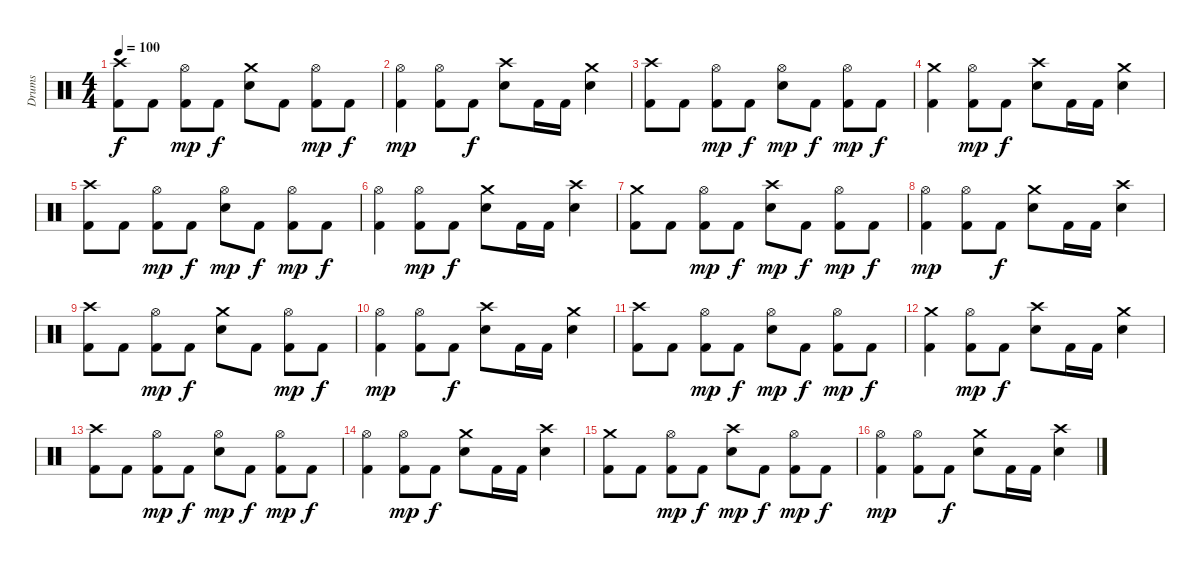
\track ("Drums" "Drums") {instrument percussion}
\staff {score}
\articulation defaults
\ts (4 4)
\tempo 100
\clef neutral
\ks c
("Crash high (hit)" "Kick (hit) 2").8{dy f} "Kick (hit) 2".8 ("Hi-Hat (open)" "Kick (hit) 2").8{dy mp} "Kick (hit) 2".8{dy f} ("Crash medium (hit)" "Snare (hit) 2").8 "Kick (hit) 2".8 ("Hi-Hat (open)" "Kick (hit) 2").8{dy mp} "Kick (hit) 2".8{dy f} |
("Hi-Hat (open)" "Kick (hit) 2").4{dy mp} ("Hi-Hat (open)" "Kick (hit) 2").8 "Kick (hit) 2".8{dy f} ("Crash high (hit)" "Snare (hit) 2").8 "Kick (hit) 2".16 "Kick (hit) 2".16 ("Crash medium (hit)" "Snare (hit) 2").4 |
("Crash high (hit)" "Kick (hit) 2").8 "Kick (hit) 2".8 ("Hi-Hat (open)" "Kick (hit) 2").8{dy mp} "Kick (hit) 2".8{dy f} ("Hi-Hat (open)" "Snare (hit) 2").8{dy mp} "Kick (hit) 2".8{dy f} ("Hi-Hat (open)" "Kick (hit) 2").8{dy mp} "Kick (hit) 2".8{dy f} |
("Crash medium (hit)" "Kick (hit) 2").4 ("Hi-Hat (open)" "Kick (hit) 2").8{dy mp} "Kick (hit) 2".8{dy f} ("Crash high (hit)" "Snare (hit) 2").8 "Kick (hit) 2".16 "Kick (hit) 2".16 ("Crash medium (hit)" "Snare (hit) 2").4 |
("Crash high (hit)" "Kick (hit) 2").8 "Kick (hit) 2".8 ("Hi-Hat (open)" "Kick (hit) 2").8{dy mp} "Kick (hit) 2".8{dy f} ("Hi-Hat (open)" "Snare (hit) 2").8{dy mp} "Kick (hit) 2".8{dy f} ("Hi-Hat (open)" "Kick (hit) 2").8{dy mp} "Kick (hit) 2".8{dy f} |
("Hi-Hat (open)" "Kick (hit) 2").4 ("Hi-Hat (open)" "Kick (hit) 2").8{dy mp} "Kick (hit) 2".8{dy f} ("Crash medium (hit)" "Snare (hit) 2").8 "Kick (hit) 2".16 "Kick (hit) 2".16 ("Crash high (hit)" "Snare (hit) 2").4 |
("Crash medium (hit)" "Kick (hit) 2").8 "Kick (hit) 2".8 ("Hi-Hat (open)" "Kick (hit) 2").8{dy mp} "Kick (hit) 2".8{dy f} ("Crash high (hit)" "Snare (hit) 2").8{dy mp} "Kick (hit) 2".8{dy f} ("Hi-Hat (open)" "Kick (hit) 2").8{dy mp} "Kick (hit) 2".8{dy f} |
("Hi-Hat (open)" "Kick (hit) 2").4{dy mp} ("Hi-Hat (open)" "Kick (hit) 2").8 "Kick (hit) 2".8{dy f} ("Crash medium (hit)" "Snare (hit) 2").8 "Kick (hit) 2".16 "Kick (hit) 2".16 ("Crash high (hit)" "Snare (hit) 2").4 |
("Crash high (hit)" "Kick (hit) 2").8 "Kick (hit) 2".8 ("Hi-Hat (open)" "Kick (hit) 2").8{dy mp} "Kick (hit) 2".8{dy f} ("Crash medium (hit)" "Snare (hit) 2").8 "Kick (hit) 2".8 ("Hi-Hat (open)" "Kick (hit) 2").8{dy mp} "Kick (hit) 2".8{dy f} |
("Hi-Hat (open)" "Kick (hit) 2").4{dy mp} ("Hi-Hat (open)" "Kick (hit) 2").8 "Kick (hit) 2".8{dy f} ("Crash high (hit)" "Snare (hit) 2").8 "Kick (hit) 2".16 "Kick (hit) 2".16 ("Crash medium (hit)" "Snare (hit) 2").4 |
("Crash high (hit)" "Kick (hit) 2").8 "Kick (hit) 2".8 ("Hi-Hat (open)" "Kick (hit) 2").8{dy mp} "Kick (hit) 2".8{dy f} ("Hi-Hat (open)" "Snare (hit) 2").8{dy mp} "Kick (hit) 2".8{dy f} ("Hi-Hat (open)" "Kick (hit) 2").8{dy mp} "Kick (hit) 2".8{dy f} |
("Crash medium (hit)" "Kick (hit) 2").4 ("Hi-Hat (open)" "Kick (hit) 2").8{dy mp} "Kick (hit) 2".8{dy f} ("Crash high (hit)" "Snare (hit) 2").8 "Kick (hit) 2".16 "Kick (hit) 2".16 ("Crash medium (hit)" "Snare (hit) 2").4 |
("Crash high (hit)" "Kick (hit) 2").8 "Kick (hit) 2".8 ("Hi-Hat (open)" "Kick (hit) 2").8{dy mp} "Kick (hit) 2".8{dy f} ("Hi-Hat (open)" "Snare (hit) 2").8{dy mp} "Kick (hit) 2".8{dy f} ("Hi-Hat (open)" "Kick (hit) 2").8{dy mp} "Kick (hit) 2".8{dy f} |
("Hi-Hat (open)" "Kick (hit) 2").4 ("Hi-Hat (open)" "Kick (hit) 2").8{dy mp} "Kick (hit) 2".8{dy f} ("Crash medium (hit)" "Snare (hit) 2").8 "Kick (hit) 2".16 "Kick (hit) 2".16 ("Crash high (hit)" "Snare (hit) 2").4 |
("Crash medium (hit)" "Kick (hit) 2").8 "Kick (hit) 2".8 ("Hi-Hat (open)" "Kick (hit) 2").8{dy mp} "Kick (hit) 2".8{dy f} ("Crash high (hit)" "Snare (hit) 2").8{dy mp} "Kick (hit) 2".8{dy f} ("Hi-Hat (open)" "Kick (hit) 2").8{dy mp} "Kick (hit) 2".8{dy f} |
("Hi-Hat (open)" "Kick (hit) 2").4{dy mp} ("Hi-Hat (open)" "Kick (hit) 2").8 "Kick (hit) 2".8{dy f} ("Crash medium (hit)" "Snare (hit) 2").8 "Kick (hit) 2".16 "Kick (hit) 2".16 ("Crash high (hit)" "Snare (hit) 2").4
